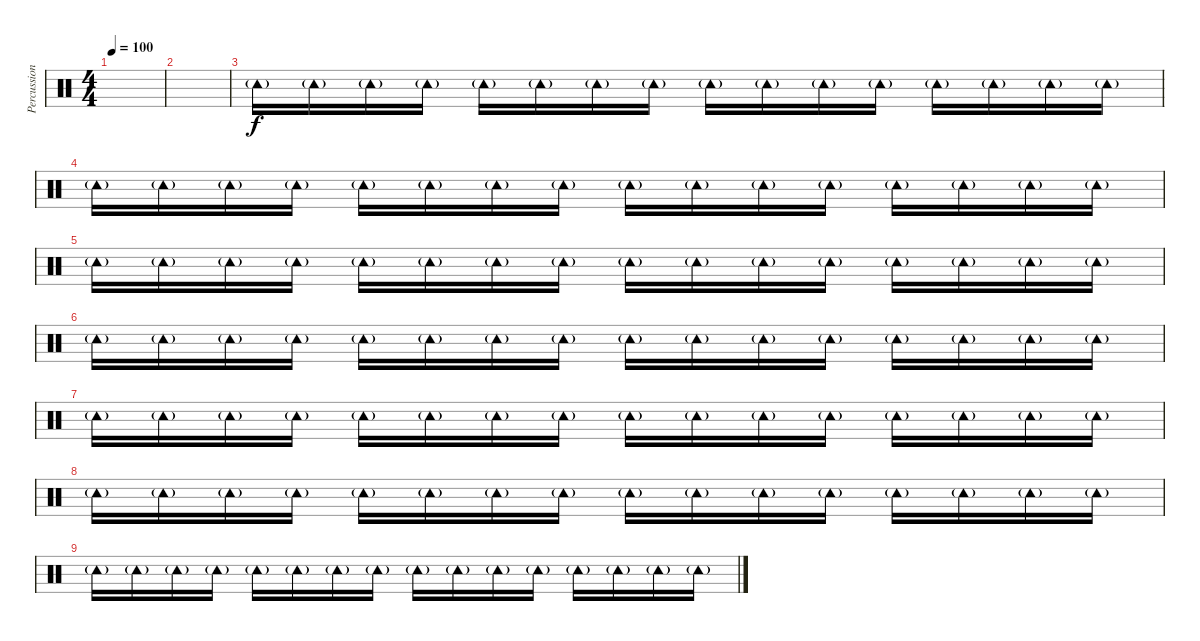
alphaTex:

\track ("Percussion" "Percussion") {instrument percussion}
\staff {score}
\articulation defaults
\ts (4 4)
\tempo 100
\clef neutral
\ks c
|
|
"Tambourine (hit)"{g}.16 "Tambourine (hit)"{g}.16 "Tambourine (hit)"{g}.16 "Tambourine (hit)"{g}.16 "Tambourine (hit)"{g}.16 "Tambourine (hit)"{g}.16 "Tambourine (hit)"{g}.16 "Tambourine (hit)"{g}.16 "Tambourine (hit)"{g}.16 "Tambourine (hit)"{g}.16 "Tambourine (hit)"{g}.16 "Tambourine (hit)"{g}.16 "Tambourine (hit)"{g}.16 "Tambourine (hit)"{g}.16 "Tambourine (hit)"{g}.16 "Tambourine (hit)"{g}.16 |
"Tambourine (hit)"{g}.16 "Tambourine (hit)"{g}.16 "Tambourine (hit)"{g}.16 "Tambourine (hit)"{g}.16 "Tambourine (hit)"{g}.16 "Tambourine (hit)"{g}.16 "Tambourine (hit)"{g}.16 "Tambourine (hit)"{g}.16 "Tambourine (hit)"{g}.16 "Tambourine (hit)"{g}.16 "Tambourine (hit)"{g}.16 "Tambourine (hit)"{g}.16 "Tambourine (hit)"{g}.16 "Tambourine (hit)"{g}.16 "Tambourine (hit)"{g}.16 "Tambourine (hit)"{g}.16 |
"Tambourine (hit)"{g}.16 "Tambourine (hit)"{g}.16 "Tambourine (hit)"{g}.16 "Tambourine (hit)"{g}.16 "Tambourine (hit)"{g}.16 "Tambourine (hit)"{g}.16 "Tambourine (hit)"{g}.16 "Tambourine (hit)"{g}.16 "Tambourine (hit)"{g}.16 "Tambourine (hit)"{g}.16 "Tambourine (hit)"{g}.16 "Tambourine (hit)"{g}.16 "Tambourine (hit)"{g}.16 "Tambourine (hit)"{g}.16 "Tambourine (hit)"{g}.16 "Tambourine (hit)"{g}.16 |
"Tambourine (hit)"{g}.16 "Tambourine (hit)"{g}.16 "Tambourine (hit)"{g}.16 "Tambourine (hit)"{g}.16 "Tambourine (hit)"{g}.16 "Tambourine (hit)"{g}.16 "Tambourine (hit)"{g}.16 "Tambourine (hit)"{g}.16 "Tambourine (hit)"{g}.16 "Tambourine (hit)"{g}.16 "Tambourine (hit)"{g}.16 "Tambourine (hit)"{g}.16 "Tambourine (hit)"{g}.16 "Tambourine (hit)"{g}.16 "Tambourine (hit)"{g}.16 "Tambourine (hit)"{g}.16 |
"Tambourine (hit)"{g}.16 "Tambourine (hit)"{g}.16 "Tambourine (hit)"{g}.16 "Tambourine (hit)"{g}.16 "Tambourine (hit)"{g}.16 "Tambourine (hit)"{g}.16 "Tambourine (hit)"{g}.16 "Tambourine (hit)"{g}.16 "Tambourine (hit)"{g}.16 "Tambourine (hit)"{g}.16 "Tambourine (hit)"{g}.16 "Tambourine (hit)"{g}.16 "Tambourine (hit)"{g}.16 "Tambourine (hit)"{g}.16 "Tambourine (hit)"{g}.16 "Tambourine (hit)"{g}.16 |
"Tambourine (hit)"{g}.16 "Tambourine (hit)"{g}.16 "Tambourine (hit)"{g}.16 "Tambourine (hit)"{g}.16 "Tambourine (hit)"{g}.16 "Tambourine (hit)"{g}.16 "Tambourine (hit)"{g}.16 "Tambourine (hit)"{g}.16 "Tambourine (hit)"{g}.16 "Tambourine (hit)"{g}.16 "Tambourine (hit)"{g}.16 "Tambourine (hit)"{g}.16 "Tambourine (hit)"{g}.16 "Tambourine (hit)"{g}.16 "Tambourine (hit)"{g}.16 "Tambourine (hit)"{g}.16 |
"Tambourine (hit)"{g}.16 "Tambourine (hit)"{g}.16 "Tambourine (hit)"{g}.16 "Tambourine (hit)"{g}.16 "Tambourine (hit)"{g}.16 "Tambourine (hit)"{g}.16 "Tambourine (hit)"{g}.16 "Tambourine (hit)"{g}.16 "Tambourine (hit)"{g}.16 "Tambourine (hit)"{g}.16 "Tambourine (hit)"{g}.16 "Tambourine (hit)"{g}.16 "Tambourine (hit)"{g}.16 "Tambourine (hit)"{g}.16 "Tambourine (hit)"{g}.16 "Tambourine (hit)"{g}.16
